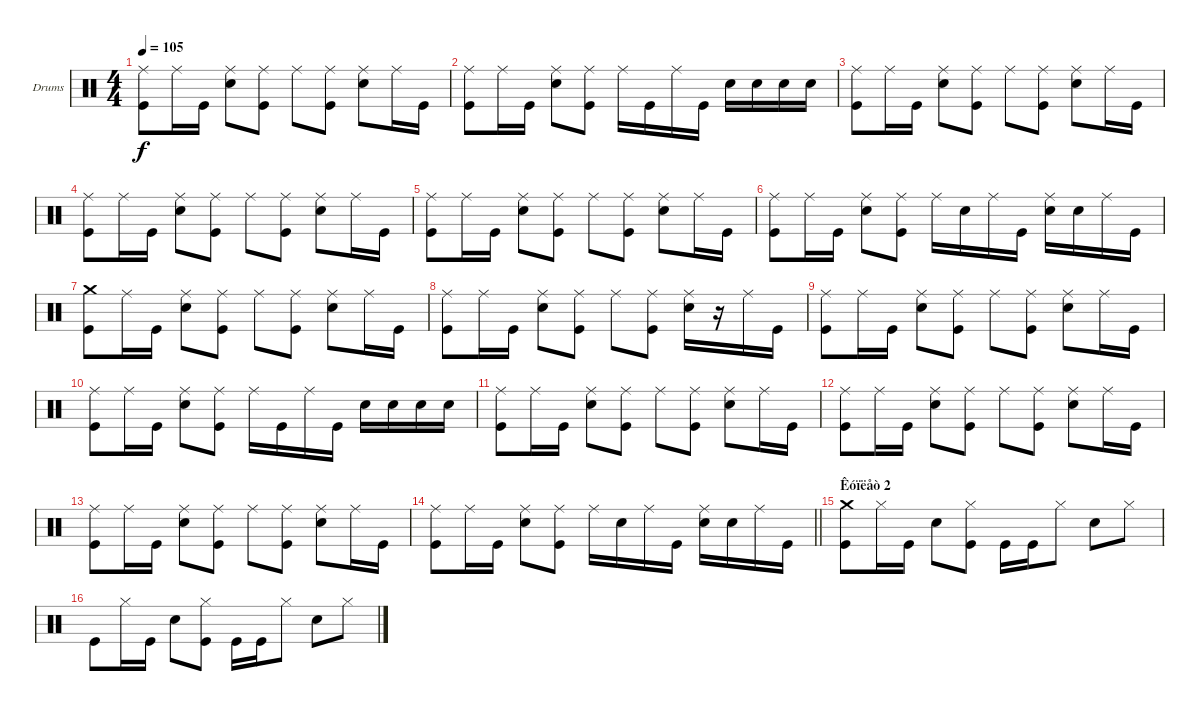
\bracketExtendMode groupsimilarinstruments
\firstSystemTrackNameOrientation horizontal
\otherSystemsTrackNameOrientation horizontal
\track ("Drumkit" "Drums") {instrument percussion}
\staff {score}
\articulation defaults
\ts (4 4)
\tempo 105
\clef neutral
\ks c
("Kick (hit)" "Ride (middle)").8{dy f} "Ride (middle)".16 "Kick (hit)".16 ("Snare (hit) 2" "Ride (middle)").8 ("Kick (hit)" "Ride (middle)").8 "Ride (middle)".8 ("Kick (hit)" "Ride (middle)").8 ("Snare (hit) 2" "Ride (middle)").8 "Ride (middle)".16 "Kick (hit)".16 |
("Kick (hit)" "Ride (middle)").8 "Ride (middle)".16 "Kick (hit)".16 ("Snare (hit) 2" "Ride (middle)").8 ("Kick (hit)" "Ride (middle)").8 "Ride (middle)".16 "Kick (hit)".16 "Ride (middle)".16 "Kick (hit)".16 "Snare (hit) 2".16 "Snare (hit) 2".16 "Snare (hit) 2".16 "Snare (hit) 2".16 |
("Kick (hit)" "Ride (middle)").8 "Ride (middle)".16 "Kick (hit)".16 ("Snare (hit) 2" "Ride (middle)").8 ("Kick (hit)" "Ride (middle)").8 "Ride (middle)".8 ("Kick (hit)" "Ride (middle)").8 ("Snare (hit) 2" "Ride (middle)").8 "Ride (middle)".16 "Kick (hit)".16 |
("Kick (hit)" "Ride (middle)").8 "Ride (middle)".16 "Kick (hit)".16 ("Snare (hit) 2" "Ride (middle)").8 ("Kick (hit)" "Ride (middle)").8 "Ride (middle)".8 ("Kick (hit)" "Ride (middle)").8 ("Snare (hit) 2" "Ride (middle)").8 "Ride (middle)".16 "Kick (hit)".16 |
("Kick (hit)" "Ride (middle)").8 "Ride (middle)".16 "Kick (hit)".16 ("Snare (hit) 2" "Ride (middle)").8 ("Kick (hit)" "Ride (middle)").8 "Ride (middle)".8 ("Kick (hit)" "Ride (middle)").8 ("Snare (hit) 2" "Ride (middle)").8 "Ride (middle)".16 "Kick (hit)".16 |
("Kick (hit)" "Ride (middle)").8 "Ride (middle)".16 "Kick (hit)".16 ("Snare (hit) 2" "Ride (middle)").8 ("Kick (hit)" "Ride (middle)").8 "Ride (middle)".16 "Snare (hit) 2".16 "Ride (middle)".16 "Kick (hit)".16 ("Snare (hit) 2" "Ride (middle)").16 "Snare (hit) 2".16 "Ride (middle)".16 "Kick (hit)".16 |
("Kick (hit)" "Crash medium (hit)").8 "Ride (middle)".16 "Kick (hit)".16 ("Snare (hit) 2" "Ride (middle)").8 ("Kick (hit)" "Ride (middle)").8 "Ride (middle)".8 ("Kick (hit)" "Ride (middle)").8 ("Snare (hit) 2" "Ride (middle)").8 "Ride (middle)".16 "Kick (hit)".16 |
("Kick (hit)" "Ride (middle)").8 "Ride (middle)".16 "Kick (hit)".16 ("Snare (hit) 2" "Ride (middle)").8 ("Kick (hit)" "Ride (middle)").8 "Ride (middle)".8 ("Kick (hit)" "Ride (middle)").8 ("Snare (hit) 2" "Ride (middle)").16 r.16 "Ride (middle)".16 "Kick (hit)".16 |
("Kick (hit)" "Ride (middle)").8 "Ride (middle)".16 "Kick (hit)".16 ("Snare (hit) 2" "Ride (middle)").8 ("Kick (hit)" "Ride (middle)").8 "Ride (middle)".8 ("Kick (hit)" "Ride (middle)").8 ("Snare (hit) 2" "Ride (middle)").8 "Ride (middle)".16 "Kick (hit)".16 |
("Kick (hit)" "Ride (middle)").8 "Ride (middle)".16 "Kick (hit)".16 ("Snare (hit) 2" "Ride (middle)").8 ("Kick (hit)" "Ride (middle)").8 "Ride (middle)".16 "Kick (hit)".16 "Ride (middle)".16 "Kick (hit)".16 "Snare (hit) 2".16 "Snare (hit) 2".16 "Snare (hit) 2".16 "Snare (hit) 2".16 |
("Kick (hit)" "Ride (middle)").8 "Ride (middle)".16 "Kick (hit)".16 ("Snare (hit) 2" "Ride (middle)").8 ("Kick (hit)" "Ride (middle)").8 "Ride (middle)".8 ("Kick (hit)" "Ride (middle)").8 ("Snare (hit) 2" "Ride (middle)").8 "Ride (middle)".16 "Kick (hit)".16 |
("Kick (hit)" "Ride (middle)").8 "Ride (middle)".16 "Kick (hit)".16 ("Snare (hit) 2" "Ride (middle)").8 ("Kick (hit)" "Ride (middle)").8 "Ride (middle)".8 ("Kick (hit)" "Ride (middle)").8 ("Snare (hit) 2" "Ride (middle)").8 "Ride (middle)".16 "Kick (hit)".16 |
("Kick (hit)" "Ride (middle)").8 "Ride (middle)".16 "Kick (hit)".16 ("Snare (hit) 2" "Ride (middle)").8 ("Kick (hit)" "Ride (middle)").8 "Ride (middle)".8 ("Kick (hit)" "Ride (middle)").8 ("Snare (hit) 2" "Ride (middle)").8 "Ride (middle)".16 "Kick (hit)".16 |
\barLineRight lightlight
("Kick (hit)" "Ride (middle)").8 "Ride (middle)".16 "Kick (hit)".16 ("Snare (hit) 2" "Ride (middle)").8 ("Kick (hit)" "Ride (middle)").8 "Ride (middle)".16 "Snare (hit) 2".16 "Ride (middle)".16 "Kick (hit)".16 ("Snare (hit) 2" "Ride (middle)").16 "Snare (hit) 2".16 "Ride (middle)".16 "Kick (hit)".16 |
\section ("" "Êóïëåò 2")
("Kick (hit)" "Crash medium (hit)").8 "Hi-Hat (closed)".16 "Kick (hit)".16 "Snare (hit) 2".8 ("Kick (hit)" "Hi-Hat (closed)").8 "Kick (hit)".16 "Kick (hit)".16 "Hi-Hat (closed)".8 "Snare (hit) 2".8 "Hi-Hat (closed)".8 |
"Kick (hit)".8 "Hi-Hat (closed)".16 "Kick (hit)".16 "Snare (hit) 2".8 ("Kick (hit)" "Hi-Hat (closed)").8 "Kick (hit)".16 "Kick (hit)".16 "Hi-Hat (closed)".8 "Snare (hit) 2".8 "Hi-Hat (closed)".8
